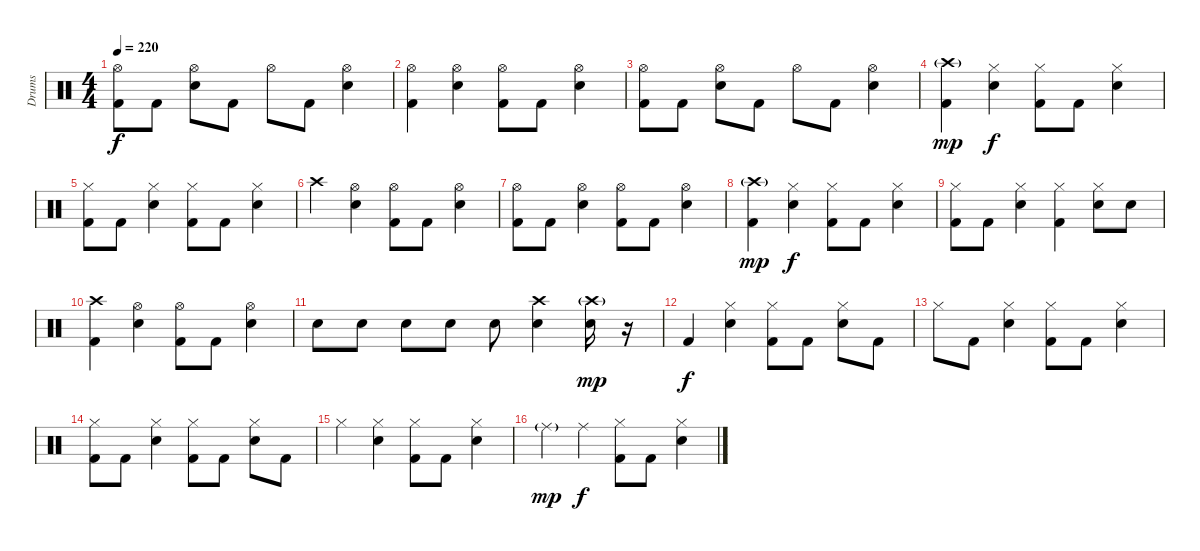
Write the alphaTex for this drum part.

\track ("Drums" "Drums") {instrument percussion}
\staff {score}
\articulation defaults
\ts (4 4)
\tempo 220
\clef neutral
\ks c
("Hi-Hat (open)" "Kick (hit) 2").8{dy f} "Kick (hit) 2".8 ("Hi-Hat (open)" "Snare (hit) 2").8 "Kick (hit) 2".8 "Hi-Hat (open)".8 "Kick (hit) 2".8 ("Hi-Hat (open)" "Snare (hit) 2").4 |
("Hi-Hat (open)" "Kick (hit) 2").4 ("Hi-Hat (open)" "Snare (hit) 2").4 ("Hi-Hat (open)" "Kick (hit) 2").8 "Kick (hit) 2".8 ("Hi-Hat (open)" "Snare (hit) 2").4 |
("Hi-Hat (open)" "Kick (hit) 2").8 "Kick (hit) 2".8 ("Hi-Hat (open)" "Snare (hit) 2").8 "Kick (hit) 2".8 "Hi-Hat (open)".8 "Kick (hit) 2".8 ("Hi-Hat (open)" "Snare (hit) 2").4 |
("Crash high (hit)"{g} "Kick (hit) 2").4{dy mp} ("Hi-Hat (closed)" "Snare (hit) 2").4{dy f} ("Hi-Hat (closed)" "Kick (hit) 2").8 "Kick (hit) 2".8 ("Hi-Hat (closed)" "Snare (hit) 2").4 |
("Hi-Hat (closed)" "Kick (hit) 2").8 "Kick (hit) 2".8 ("Hi-Hat (closed)" "Snare (hit) 2").4 ("Hi-Hat (closed)" "Kick (hit) 2").8 "Kick (hit) 2".8 ("Hi-Hat (closed)" "Snare (hit) 2").4 |
"Crash high (hit)".4 ("Hi-Hat (open)" "Snare (hit) 2").4 ("Hi-Hat (open)" "Kick (hit) 2").8 "Kick (hit) 2".8 ("Hi-Hat (open)" "Snare (hit) 2").4 |
("Hi-Hat (open)" "Kick (hit) 2").8 "Kick (hit) 2".8 ("Hi-Hat (open)" "Snare (hit) 2").4 ("Hi-Hat (open)" "Kick (hit) 2").8 "Kick (hit) 2".8 ("Hi-Hat (open)" "Snare (hit) 2").4 |
("Crash high (hit)"{g} "Kick (hit) 2").4{dy mp} ("Hi-Hat (closed)" "Snare (hit) 2").4{dy f} ("Hi-Hat (closed)" "Kick (hit) 2").8 "Kick (hit) 2".8 ("Hi-Hat (closed)" "Snare (hit) 2").4 |
("Hi-Hat (closed)" "Kick (hit) 2").8 "Kick (hit) 2".8 ("Hi-Hat (closed)" "Snare (hit) 2").4 ("Hi-Hat (closed)" "Kick (hit) 2").4 ("Hi-Hat (closed)" "Snare (hit) 2").8 "Snare (hit) 2".8 |
("Crash high (hit)" "Kick (hit) 2").4 ("Hi-Hat (open)" "Snare (hit) 2").4 ("Hi-Hat (open)" "Kick (hit) 2").8 "Kick (hit) 2".8 ("Hi-Hat (open)" "Snare (hit) 2").4 |
"Snare (hit) 2".8 "Snare (hit) 2".8 "Snare (hit) 2".8 "Snare (hit) 2".8 "Snare (hit) 2".8 ("Crash high (hit)" "Snare (hit) 2").4 ("Crash high (hit)"{g} "Snare (hit) 2").16{dy mp} r.16 |
"Kick (hit) 2".4{dy f} ("Hi-Hat (closed)" "Snare (hit) 2").4 ("Hi-Hat (closed)" "Kick (hit) 2").8 "Kick (hit) 2".8 ("Hi-Hat (closed)" "Snare (hit) 2").8 "Kick (hit) 2".8 |
"Hi-Hat (closed)".8 "Kick (hit) 2".8 ("Hi-Hat (closed)" "Snare (hit) 2").4 ("Hi-Hat (closed)" "Kick (hit) 2").8 "Kick (hit) 2".8 ("Hi-Hat (closed)" "Snare (hit) 2").4 |
("Hi-Hat (closed)" "Kick (hit) 2").8 "Kick (hit) 2".8 ("Hi-Hat (closed)" "Snare (hit) 2").4 ("Hi-Hat (closed)" "Kick (hit) 2").8 "Kick (hit) 2".8 ("Hi-Hat (closed)" "Snare (hit) 2").8 "Kick (hit) 2".8 |
"Hi-Hat (closed)".4 ("Hi-Hat (closed)" "Snare (hit) 2").4 ("Hi-Hat (closed)" "Kick (hit) 2").8 "Kick (hit) 2".8 ("Hi-Hat (closed)" "Snare (hit) 2").4 |
"Ride (middle)"{g}.4{dy mp} "Ride (middle)".4{dy f} ("Hi-Hat (closed)" "Kick (hit) 2").8 "Kick (hit) 2".8 ("Hi-Hat (closed)" "Snare (hit) 2").4
